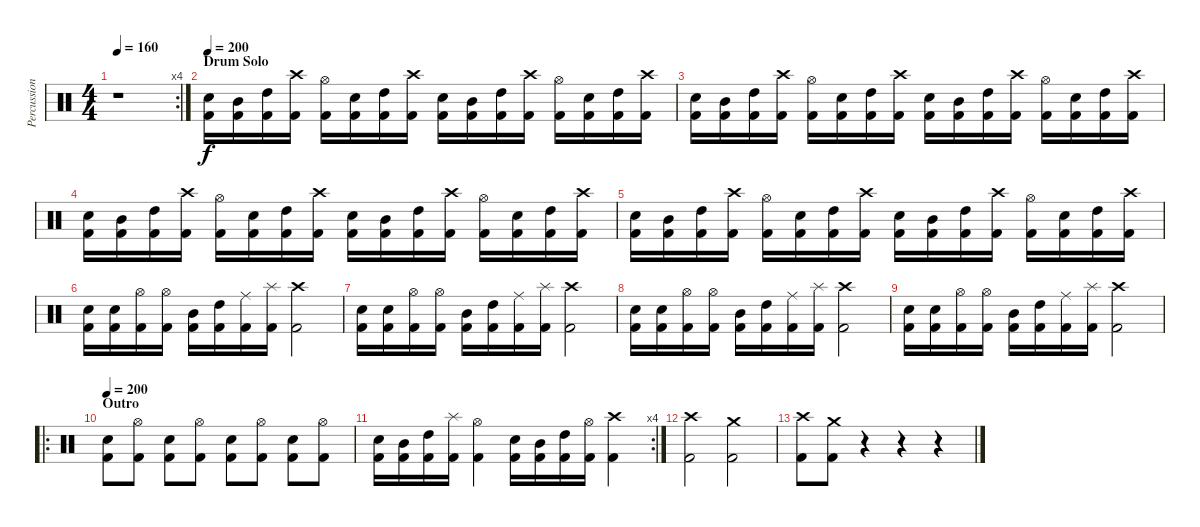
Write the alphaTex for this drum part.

\track ("Percussion" "Percussion") {instrument percussion}
\staff {score}
\articulation defaults
\rc 4
\ts (4 4)
\tempo 160
\clef neutral
\ks c
r.1{dy f} |
\section ("" "Drum Solo")
\tempo 200
("Electric Snare (hit)" "Kick (hit) 2").16 ("Mid Tom (hit)" "Kick (hit) 2").16 ("High Tom (hit)" "Kick (hit) 2").16 ("Crash high (hit)" "Kick (hit) 2").16 ("Hi-Hat (open)" "Kick (hit) 2").16 ("Electric Snare (hit)" "Kick (hit) 2").16 ("High Tom (hit)" "Kick (hit) 2").16 ("Crash high (hit)" "Kick (hit) 2").16 ("Electric Snare (hit)" "Kick (hit) 2").16 ("Mid Tom (hit)" "Kick (hit) 2").16 ("High Tom (hit)" "Kick (hit) 2").16 ("Crash high (hit)" "Kick (hit) 2").16 ("Hi-Hat (open)" "Kick (hit) 2").16 ("Electric Snare (hit)" "Kick (hit) 2").16 ("High Tom (hit)" "Kick (hit) 2").16 ("Crash high (hit)" "Kick (hit) 2").16 |
("Electric Snare (hit)" "Kick (hit) 2").16 ("Mid Tom (hit)" "Kick (hit) 2").16 ("High Tom (hit)" "Kick (hit) 2").16 ("Crash high (hit)" "Kick (hit) 2").16 ("Hi-Hat (open)" "Kick (hit) 2").16 ("Electric Snare (hit)" "Kick (hit) 2").16 ("High Tom (hit)" "Kick (hit) 2").16 ("Crash high (hit)" "Kick (hit) 2").16 ("Electric Snare (hit)" "Kick (hit) 2").16 ("Mid Tom (hit)" "Kick (hit) 2").16 ("High Tom (hit)" "Kick (hit) 2").16 ("Crash high (hit)" "Kick (hit) 2").16 ("Hi-Hat (open)" "Kick (hit) 2").16 ("Electric Snare (hit)" "Kick (hit) 2").16 ("High Tom (hit)" "Kick (hit) 2").16 ("Crash high (hit)" "Kick (hit) 2").16 |
("Electric Snare (hit)" "Kick (hit) 2").16 ("Mid Tom (hit)" "Kick (hit) 2").16 ("High Tom (hit)" "Kick (hit) 2").16 ("Crash high (hit)" "Kick (hit) 2").16 ("Hi-Hat (open)" "Kick (hit) 2").16 ("Electric Snare (hit)" "Kick (hit) 2").16 ("High Tom (hit)" "Kick (hit) 2").16 ("Crash high (hit)" "Kick (hit) 2").16 ("Electric Snare (hit)" "Kick (hit) 2").16 ("Mid Tom (hit)" "Kick (hit) 2").16 ("High Tom (hit)" "Kick (hit) 2").16 ("Crash high (hit)" "Kick (hit) 2").16 ("Hi-Hat (open)" "Kick (hit) 2").16 ("Electric Snare (hit)" "Kick (hit) 2").16 ("High Tom (hit)" "Kick (hit) 2").16 ("Crash high (hit)" "Kick (hit) 2").16 |
("Electric Snare (hit)" "Kick (hit) 2").16 ("Mid Tom (hit)" "Kick (hit) 2").16 ("High Tom (hit)" "Kick (hit) 2").16 ("Crash high (hit)" "Kick (hit) 2").16 ("Hi-Hat (open)" "Kick (hit) 2").16 ("Electric Snare (hit)" "Kick (hit) 2").16 ("High Tom (hit)" "Kick (hit) 2").16 ("Crash high (hit)" "Kick (hit) 2").16 ("Electric Snare (hit)" "Kick (hit) 2").16 ("Mid Tom (hit)" "Kick (hit) 2").16 ("High Tom (hit)" "Kick (hit) 2").16 ("Crash high (hit)" "Kick (hit) 2").16 ("Hi-Hat (open)" "Kick (hit) 2").16 ("Electric Snare (hit)" "Kick (hit) 2").16 ("High Tom (hit)" "Kick (hit) 2").16 ("Crash high (hit)" "Kick (hit) 2").16 |
("Electric Snare (hit)" "Kick (hit) 2").16 ("Electric Snare (hit)" "Kick (hit) 2").16 ("Hi-Hat (open)" "Kick (hit) 2").16 ("Hi-Hat (open)" "Kick (hit) 2").16 ("Mid Tom (hit)" "Kick (hit) 2").16 ("High Tom (hit)" "Kick (hit) 2").16 ("Ride (middle)" "Kick (hit) 2").16 ("Splash (hit)" "Kick (hit) 2").16 ("Crash high (hit)" "Kick (hit) 2").2 |
("Electric Snare (hit)" "Kick (hit) 2").16 ("Electric Snare (hit)" "Kick (hit) 2").16 ("Hi-Hat (open)" "Kick (hit) 2").16 ("Hi-Hat (open)" "Kick (hit) 2").16 ("Mid Tom (hit)" "Kick (hit) 2").16 ("High Tom (hit)" "Kick (hit) 2").16 ("Ride (middle)" "Kick (hit) 2").16 ("Splash (hit)" "Kick (hit) 2").16 ("Crash high (hit)" "Kick (hit) 2").2 |
("Electric Snare (hit)" "Kick (hit) 2").16 ("Electric Snare (hit)" "Kick (hit) 2").16 ("Hi-Hat (open)" "Kick (hit) 2").16 ("Hi-Hat (open)" "Kick (hit) 2").16 ("Mid Tom (hit)" "Kick (hit) 2").16 ("High Tom (hit)" "Kick (hit) 2").16 ("Ride (middle)" "Kick (hit) 2").16 ("Splash (hit)" "Kick (hit) 2").16 ("Crash high (hit)" "Kick (hit) 2").2 |
("Electric Snare (hit)" "Kick (hit) 2").16 ("Electric Snare (hit)" "Kick (hit) 2").16 ("Hi-Hat (open)" "Kick (hit) 2").16 ("Hi-Hat (open)" "Kick (hit) 2").16 ("Mid Tom (hit)" "Kick (hit) 2").16 ("High Tom (hit)" "Kick (hit) 2").16 ("Ride (middle)" "Kick (hit) 2").16 ("Splash (hit)" "Kick (hit) 2").16 ("Crash high (hit)" "Kick (hit) 2").2 |
\ro
\section ("" "Outro")
\tempo 200
("Electric Snare (hit)" "Kick (hit) 2").8 ("Hi-Hat (open)" "Kick (hit) 2").8 ("Electric Snare (hit)" "Kick (hit) 2").8 ("Hi-Hat (open)" "Kick (hit) 2").8 ("Electric Snare (hit)" "Kick (hit) 2").8 ("Hi-Hat (open)" "Kick (hit) 2").8 ("Electric Snare (hit)" "Kick (hit) 2").8 ("Hi-Hat (open)" "Kick (hit) 2").8 |
\rc 4
("Electric Snare (hit)" "Kick (hit) 2").16 ("Mid Tom (hit)" "Kick (hit) 2").16 ("High Tom (hit)" "Kick (hit) 2").16 ("Splash (hit)" "Kick (hit) 2").16 ("Hi-Hat (open)" "Kick (hit) 2").4 ("Electric Snare (hit)" "Kick (hit) 2").16 ("Mid Tom (hit)" "Kick (hit) 2").16 ("High Tom (hit)" "Kick (hit) 2").16 ("Hi-Hat (open)" "Kick (hit) 2").16 ("Crash high (hit)" "Kick (hit) 2").4 |
("Crash high (hit)" "Kick (hit) 2").2 ("Crash medium (hit)" "Kick (hit) 2").2 |
("Crash high (hit)" "Kick (hit) 2").8 ("Crash medium (hit)" "Kick (hit) 2").8 r.4 r.4 r.4
